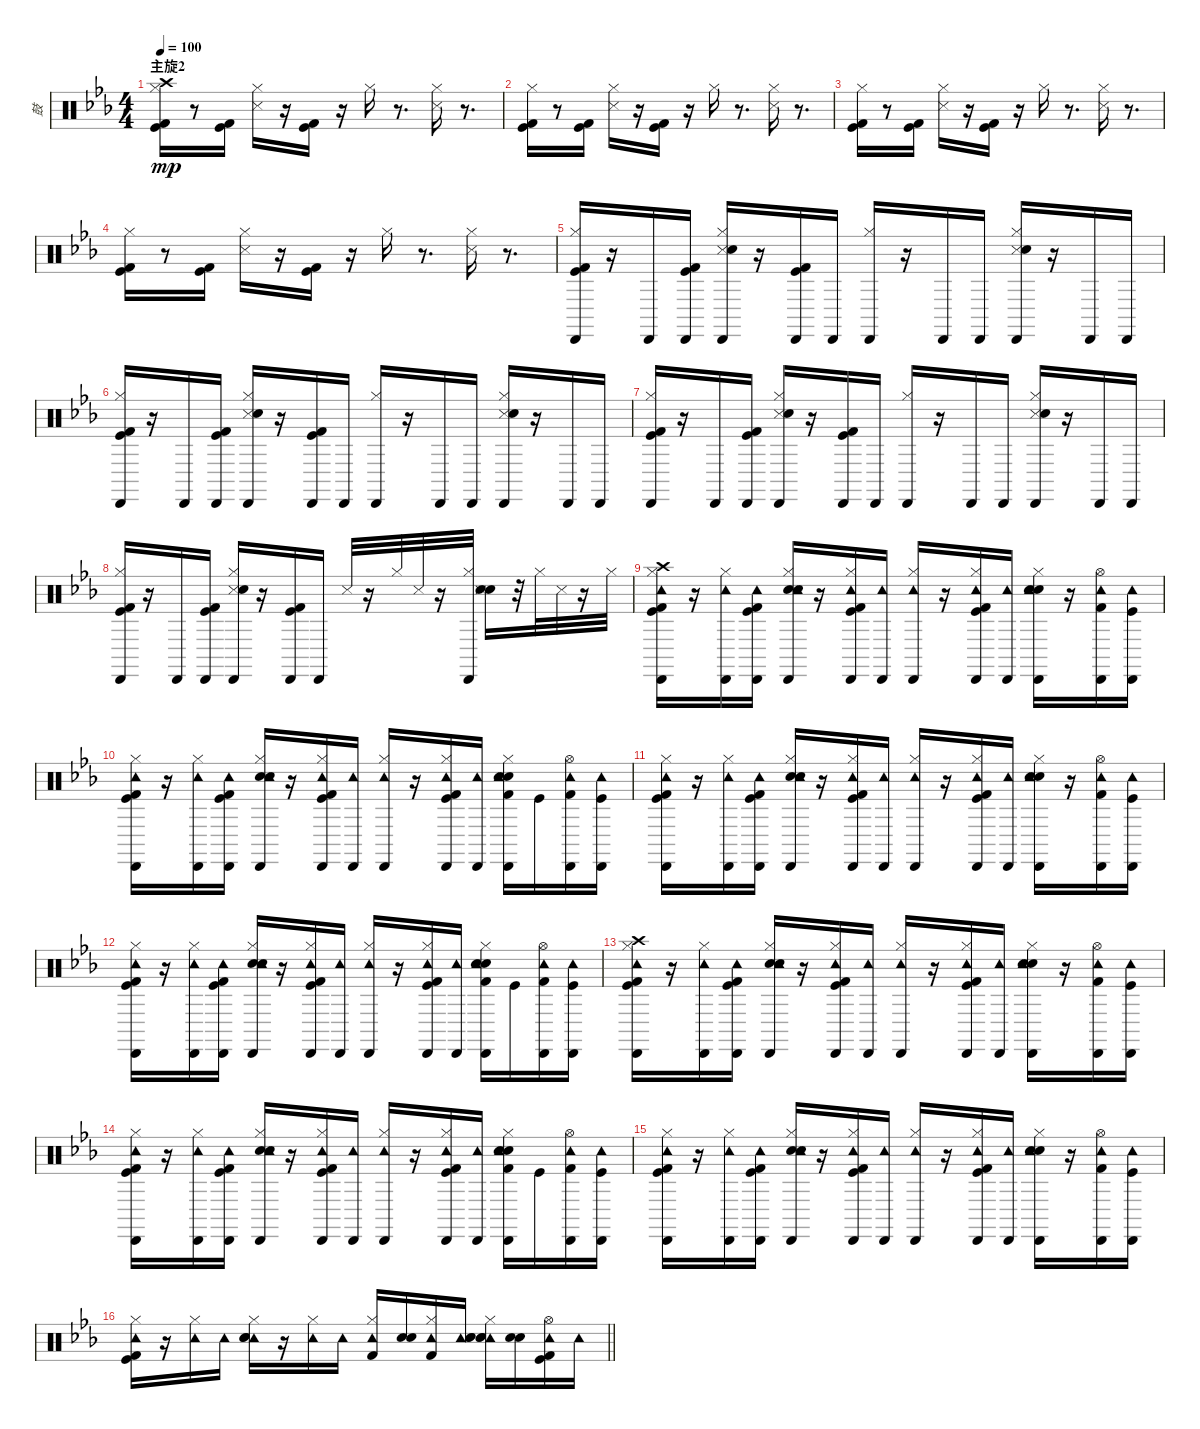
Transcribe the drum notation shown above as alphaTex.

\track ("鼓" "鼓") {instrument percussion}
\staff {score}
\articulation defaults
\ts (4 4)
\section ("" "主旋2")
\tempo 100
\clef neutral
\ks eb
("Kick (hit)" "Kick (hit) 2" "Crash high (hit)" "Hi-Hat (closed)").16{dy mp} r.8 ("Kick (hit)" "Kick (hit) 2").16 ("Snare (side stick) 3" "Hi-Hat (closed)").16 r.16 ("Kick (hit)" "Kick (hit) 2").16 r.16 "Hi-Hat (closed)".16 r.8{d} ("Snare (side stick) 3" "Hi-Hat (closed)").16 r.8{d} |
("Kick (hit)" "Kick (hit) 2" "Hi-Hat (closed)").16 r.8 ("Kick (hit)" "Kick (hit) 2").16 ("Snare (side stick) 3" "Hi-Hat (closed)").16 r.16 ("Kick (hit)" "Kick (hit) 2").16 r.16 "Hi-Hat (closed)".16 r.8{d} ("Snare (side stick) 3" "Hi-Hat (closed)").16 r.8{d} |
("Kick (hit)" "Kick (hit) 2" "Hi-Hat (closed)").16 r.8 ("Kick (hit)" "Kick (hit) 2").16 ("Snare (side stick) 3" "Hi-Hat (closed)").16 r.16 ("Kick (hit)" "Kick (hit) 2").16 r.16 "Hi-Hat (closed)".16 r.8{d} ("Snare (side stick) 3" "Hi-Hat (closed)").16 r.8{d} |
("Kick (hit)" "Kick (hit) 2" "Hi-Hat (closed)").16 r.8 ("Kick (hit)" "Kick (hit) 2").16 ("Snare (side stick) 3" "Hi-Hat (closed)").16 r.16 ("Kick (hit)" "Kick (hit) 2").16 r.16 "Hi-Hat (closed)".16 r.8{d} ("Snare (side stick) 3" "Hi-Hat (closed)").16 r.8{d} |
("Kick (hit)" "Kick (hit) 2" "Hi-Hat (closed)" "Cabasa (hit)").16 r.16 "Cabasa (hit)".16 ("Kick (hit)" "Kick (hit) 2" "Cabasa (hit)").16 ("Snare (side stick) 3" "Hi-Hat (closed)" "Cabasa (hit)" "Electric Snare (hit)").16 r.16 ("Kick (hit)" "Kick (hit) 2" "Cabasa (hit)").16 "Cabasa (hit)".16 ("Hi-Hat (closed)" "Cabasa (hit)").16 r.16 "Cabasa (hit)".16 "Cabasa (hit)".16 ("Snare (side stick) 3" "Hi-Hat (closed)" "Cabasa (hit)" "Electric Snare (hit)").16 r.16 "Cabasa (hit)".16 "Cabasa (hit)".16 |
("Kick (hit)" "Kick (hit) 2" "Hi-Hat (closed)" "Cabasa (hit)").16 r.16 "Cabasa (hit)".16 ("Kick (hit)" "Kick (hit) 2" "Cabasa (hit)").16 ("Snare (side stick) 3" "Hi-Hat (closed)" "Cabasa (hit)" "Electric Snare (hit)").16 r.16 ("Kick (hit)" "Kick (hit) 2" "Cabasa (hit)").16 "Cabasa (hit)".16 ("Hi-Hat (closed)" "Cabasa (hit)").16 r.16 "Cabasa (hit)".16 "Cabasa (hit)".16 ("Snare (side stick) 3" "Hi-Hat (closed)" "Cabasa (hit)" "Electric Snare (hit)").16 r.16 "Cabasa (hit)".16 "Cabasa (hit)".16 |
("Kick (hit)" "Kick (hit) 2" "Hi-Hat (closed)" "Cabasa (hit)").16 r.16 "Cabasa (hit)".16 ("Kick (hit)" "Kick (hit) 2" "Cabasa (hit)").16 ("Snare (side stick) 3" "Hi-Hat (closed)" "Cabasa (hit)" "Electric Snare (hit)").16 r.16 ("Kick (hit)" "Kick (hit) 2" "Cabasa (hit)").16 "Cabasa (hit)".16 ("Hi-Hat (closed)" "Cabasa (hit)").16 r.16 "Cabasa (hit)".16 "Cabasa (hit)".16 ("Snare (side stick) 3" "Hi-Hat (closed)" "Cabasa (hit)" "Electric Snare (hit)").16 r.16 "Cabasa (hit)".16 "Cabasa (hit)".16 |
("Kick (hit)" "Kick (hit) 2" "Hi-Hat (closed)" "Cabasa (hit)").16 r.16 "Cabasa (hit)".16 ("Kick (hit)" "Kick (hit) 2" "Cabasa (hit)").16 ("Snare (side stick) 3" "Hi-Hat (closed)" "Cabasa (hit)" "Electric Snare (hit)").16 r.16 ("Kick (hit)" "Kick (hit) 2" "Cabasa (hit)").16 "Cabasa (hit)".16 "Snare (side stick) 3".32 r.16 "Hi-Hat (closed)".32 "Snare (side stick) 3".32 r.16 ("Cabasa (hit)" "Hi-Hat (closed)").32 ("Electric Snare (hit)" "Hand Clap (hit)" "Snare (side stick) 3").16 r.32 "Hi-Hat (closed)".32 "Snare (side stick) 3".32 r.16 "Hi-Hat (closed)".32 |
("Tambourine (hit)" "Cabasa (hit)" "Crash high (hit)" "Kick (hit)" "Kick (hit) 2" "Hi-Hat (closed)").16 r.16 ("Tambourine (hit)" "Cabasa (hit)" "Hi-Hat (closed)").16 ("Tambourine (hit)" "Cabasa (hit)" "Kick (hit)" "Kick (hit) 2").16 ("Electric Snare (hit)" "Hand Clap (hit)" "Tambourine (hit)" "Cabasa (hit)" "Hi-Hat (closed)").16 r.16 ("Tambourine (hit)" "Cabasa (hit)" "Kick (hit)" "Kick (hit) 2" "Hi-Hat (closed)").16 ("Tambourine (hit)" "Cabasa (hit)").16 ("Tambourine (hit)" "Cabasa (hit)" "Hi-Hat (closed)").16 r.16 ("Tambourine (hit)" "Cabasa (hit)" "Kick (hit)" "Kick (hit) 2" "Hi-Hat (closed)").16 ("Tambourine (hit)" "Cabasa (hit)").16 ("Electric Snare (hit)" "Hand Clap (hit)" "Tambourine (hit)" "Cabasa (hit)" "Hi-Hat (closed)").16 r.16 ("Tambourine (hit)" "Cabasa (hit)" "Kick (hit) 2" "Hi-Hat (open)").16 ("Tambourine (hit)" "Cabasa (hit)" "Kick (hit)").16 |
("Tambourine (hit)" "Cabasa (hit)" "Kick (hit)" "Kick (hit) 2" "Hi-Hat (closed)").16 r.16 ("Tambourine (hit)" "Cabasa (hit)" "Hi-Hat (closed)").16 ("Tambourine (hit)" "Cabasa (hit)" "Kick (hit)" "Kick (hit) 2").16 ("Electric Snare (hit)" "Hand Clap (hit)" "Tambourine (hit)" "Cabasa (hit)" "Hi-Hat (closed)").16 r.16 ("Tambourine (hit)" "Cabasa (hit)" "Kick (hit)" "Kick (hit) 2" "Hi-Hat (closed)").16 ("Tambourine (hit)" "Cabasa (hit)").16 ("Tambourine (hit)" "Cabasa (hit)" "Hi-Hat (closed)").16 r.16 ("Tambourine (hit)" "Cabasa (hit)" "Kick (hit)" "Kick (hit) 2" "Hi-Hat (closed)").16 ("Tambourine (hit)" "Cabasa (hit)").16 ("Electric Snare (hit)" "Hand Clap (hit)" "Tambourine (hit)" "Cabasa (hit)" "Kick (hit) 2" "Hi-Hat (closed)").16 "Kick (hit)".16 ("Tambourine (hit)" "Cabasa (hit)" "Kick (hit) 2" "Hi-Hat (open)").16 ("Tambourine (hit)" "Cabasa (hit)" "Kick (hit)").16 |
("Tambourine (hit)" "Cabasa (hit)" "Kick (hit)" "Kick (hit) 2" "Hi-Hat (closed)").16 r.16 ("Tambourine (hit)" "Cabasa (hit)" "Hi-Hat (closed)").16 ("Tambourine (hit)" "Cabasa (hit)" "Kick (hit)" "Kick (hit) 2").16 ("Electric Snare (hit)" "Hand Clap (hit)" "Tambourine (hit)" "Cabasa (hit)" "Hi-Hat (closed)").16 r.16 ("Tambourine (hit)" "Cabasa (hit)" "Kick (hit)" "Kick (hit) 2" "Hi-Hat (closed)").16 ("Tambourine (hit)" "Cabasa (hit)").16 ("Tambourine (hit)" "Cabasa (hit)" "Hi-Hat (closed)").16 r.16 ("Tambourine (hit)" "Cabasa (hit)" "Kick (hit)" "Kick (hit) 2" "Hi-Hat (closed)").16 ("Tambourine (hit)" "Cabasa (hit)").16 ("Electric Snare (hit)" "Hand Clap (hit)" "Tambourine (hit)" "Cabasa (hit)" "Hi-Hat (closed)").16 r.16 ("Tambourine (hit)" "Cabasa (hit)" "Kick (hit) 2" "Hi-Hat (open)").16 ("Tambourine (hit)" "Cabasa (hit)" "Kick (hit)").16 |
("Tambourine (hit)" "Cabasa (hit)" "Kick (hit)" "Kick (hit) 2" "Hi-Hat (closed)").16 r.16 ("Tambourine (hit)" "Cabasa (hit)" "Hi-Hat (closed)").16 ("Tambourine (hit)" "Cabasa (hit)" "Kick (hit)" "Kick (hit) 2").16 ("Electric Snare (hit)" "Hand Clap (hit)" "Tambourine (hit)" "Cabasa (hit)" "Hi-Hat (closed)").16 r.16 ("Tambourine (hit)" "Cabasa (hit)" "Kick (hit)" "Kick (hit) 2" "Hi-Hat (closed)").16 ("Tambourine (hit)" "Cabasa (hit)").16 ("Tambourine (hit)" "Cabasa (hit)" "Hi-Hat (closed)").16 r.16 ("Tambourine (hit)" "Cabasa (hit)" "Kick (hit)" "Kick (hit) 2" "Hi-Hat (closed)").16 ("Tambourine (hit)" "Cabasa (hit)").16 ("Electric Snare (hit)" "Hand Clap (hit)" "Tambourine (hit)" "Cabasa (hit)" "Kick (hit) 2" "Hi-Hat (closed)").16 "Kick (hit)".16 ("Tambourine (hit)" "Cabasa (hit)" "Kick (hit) 2" "Hi-Hat (open)").16 ("Tambourine (hit)" "Cabasa (hit)" "Kick (hit)").16 |
("Tambourine (hit)" "Cabasa (hit)" "Kick (hit)" "Kick (hit) 2" "Hi-Hat (closed)" "Crash high (hit)").16 r.16 ("Tambourine (hit)" "Cabasa (hit)" "Hi-Hat (closed)").16 ("Tambourine (hit)" "Cabasa (hit)" "Kick (hit)" "Kick (hit) 2").16 ("Electric Snare (hit)" "Hand Clap (hit)" "Tambourine (hit)" "Cabasa (hit)" "Hi-Hat (closed)").16 r.16 ("Tambourine (hit)" "Cabasa (hit)" "Kick (hit)" "Kick (hit) 2" "Hi-Hat (closed)").16 ("Tambourine (hit)" "Cabasa (hit)").16 ("Tambourine (hit)" "Cabasa (hit)" "Hi-Hat (closed)").16 r.16 ("Tambourine (hit)" "Cabasa (hit)" "Kick (hit)" "Kick (hit) 2" "Hi-Hat (closed)").16 ("Tambourine (hit)" "Cabasa (hit)").16 ("Electric Snare (hit)" "Hand Clap (hit)" "Tambourine (hit)" "Cabasa (hit)" "Hi-Hat (closed)").16 r.16 ("Tambourine (hit)" "Cabasa (hit)" "Kick (hit) 2" "Hi-Hat (open)").16 ("Tambourine (hit)" "Cabasa (hit)" "Kick (hit)").16 |
("Tambourine (hit)" "Cabasa (hit)" "Kick (hit)" "Kick (hit) 2" "Hi-Hat (closed)").16 r.16 ("Tambourine (hit)" "Cabasa (hit)" "Hi-Hat (closed)").16 ("Tambourine (hit)" "Cabasa (hit)" "Kick (hit)" "Kick (hit) 2").16 ("Electric Snare (hit)" "Hand Clap (hit)" "Tambourine (hit)" "Cabasa (hit)" "Hi-Hat (closed)").16 r.16 ("Tambourine (hit)" "Cabasa (hit)" "Kick (hit)" "Kick (hit) 2" "Hi-Hat (closed)").16 ("Tambourine (hit)" "Cabasa (hit)").16 ("Tambourine (hit)" "Cabasa (hit)" "Hi-Hat (closed)").16 r.16 ("Tambourine (hit)" "Cabasa (hit)" "Kick (hit)" "Kick (hit) 2" "Hi-Hat (closed)").16 ("Tambourine (hit)" "Cabasa (hit)").16 ("Electric Snare (hit)" "Hand Clap (hit)" "Tambourine (hit)" "Cabasa (hit)" "Kick (hit) 2" "Hi-Hat (closed)").16 "Kick (hit)".16 ("Tambourine (hit)" "Cabasa (hit)" "Kick (hit) 2" "Hi-Hat (open)").16 ("Tambourine (hit)" "Cabasa (hit)" "Kick (hit)").16 |
("Tambourine (hit)" "Cabasa (hit)" "Kick (hit)" "Kick (hit) 2" "Hi-Hat (closed)").16 r.16 ("Tambourine (hit)" "Cabasa (hit)" "Hi-Hat (closed)").16 ("Tambourine (hit)" "Cabasa (hit)" "Kick (hit)" "Kick (hit) 2").16 ("Electric Snare (hit)" "Hand Clap (hit)" "Tambourine (hit)" "Cabasa (hit)" "Hi-Hat (closed)").16 r.16 ("Tambourine (hit)" "Cabasa (hit)" "Kick (hit)" "Kick (hit) 2" "Hi-Hat (closed)").16 ("Tambourine (hit)" "Cabasa (hit)").16 ("Tambourine (hit)" "Cabasa (hit)" "Hi-Hat (closed)").16 r.16 ("Tambourine (hit)" "Cabasa (hit)" "Kick (hit)" "Kick (hit) 2" "Hi-Hat (closed)").16 ("Tambourine (hit)" "Cabasa (hit)").16 ("Electric Snare (hit)" "Hand Clap (hit)" "Tambourine (hit)" "Cabasa (hit)" "Hi-Hat (closed)").16 r.16 ("Tambourine (hit)" "Cabasa (hit)" "Kick (hit) 2" "Hi-Hat (open)").16 ("Tambourine (hit)" "Cabasa (hit)" "Kick (hit)").16 |
\barLineRight lightlight
("Kick (hit)" "Kick (hit) 2" "Tambourine (hit)" "Hi-Hat (closed)").16 r.16 ("Tambourine (hit)" "Hi-Hat (closed)").16 "Tambourine (hit)".16 ("Tambourine (hit)" "Hi-Hat (closed)" "Electric Snare (hit)" "Hand Clap (hit)").16 r.16 ("Tambourine (hit)" "Hi-Hat (closed)").16 "Tambourine (hit)".16 ("Tambourine (hit)" "Hi-Hat (closed)" "Kick (hit) 2").16 ("Hand Clap (hit)" "Electric Snare (hit)").16 ("Tambourine (hit)" "Hi-Hat (closed)" "Kick (hit) 2").16 ("Tambourine (hit)" "Hand Clap (hit)" "Electric Snare (hit)").16 ("Tambourine (hit)" "Hi-Hat (closed)" "Hand Clap (hit)" "Electric Snare (hit)").16 ("Hand Clap (hit)" "Electric Snare (hit)").16 ("Kick (hit)" "Kick (hit) 2" "Tambourine (hit)" "Hi-Hat (open)").16 "Tambourine (hit)".16
